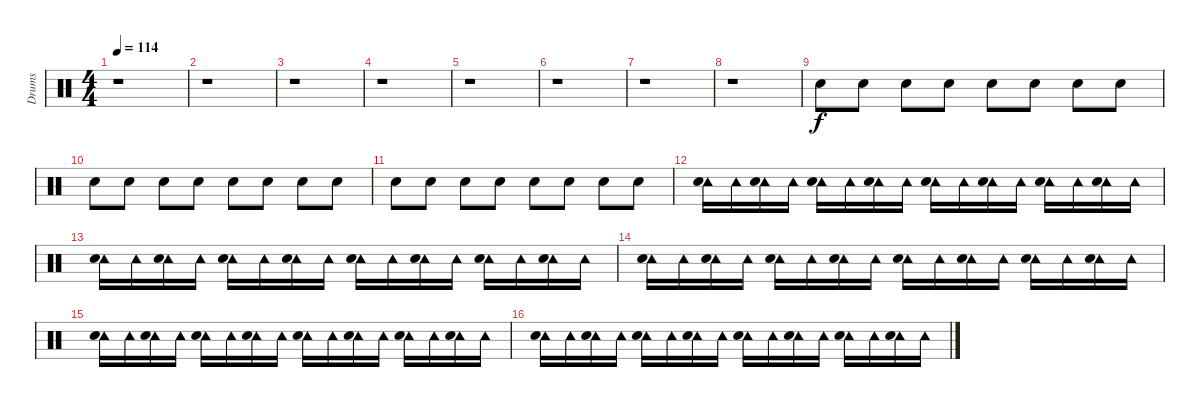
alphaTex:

\track ("Drums" "Drums") {instrument percussion}
\staff {score}
\articulation defaults
\ts (4 4)
\tempo 114
\clef neutral
\ks c
r.1{dy f} |
r.1 |
r.1 |
r.1 |
r.1 |
r.1 |
r.1 |
r.1 |
"Electric Snare (hit)".8{volume 2} "Electric Snare (hit)".8 "Electric Snare (hit)".8 "Electric Snare (hit)".8 "Electric Snare (hit)".8 "Electric Snare (hit)".8 "Electric Snare (hit)".8 "Electric Snare (hit)".8 |
"Electric Snare (hit)".8 "Electric Snare (hit)".8 "Electric Snare (hit)".8 "Electric Snare (hit)".8 "Electric Snare (hit)".8 "Electric Snare (hit)".8 "Electric Snare (hit)".8 "Electric Snare (hit)".8 |
"Electric Snare (hit)".8 "Electric Snare (hit)".8 "Electric Snare (hit)".8 "Electric Snare (hit)".8 "Electric Snare (hit)".8 "Electric Snare (hit)".8 "Electric Snare (hit)".8 "Electric Snare (hit)".8 |
("Tambourine (hit)" "Electric Snare (hit)").16 "Tambourine (hit)".16 ("Tambourine (hit)" "Electric Snare (hit)").16 "Tambourine (hit)".16 ("Tambourine (hit)" "Electric Snare (hit)").16 "Tambourine (hit)".16 ("Tambourine (hit)" "Electric Snare (hit)").16 "Tambourine (hit)".16 ("Tambourine (hit)" "Electric Snare (hit)").16 "Tambourine (hit)".16 ("Tambourine (hit)" "Electric Snare (hit)").16 "Tambourine (hit)".16 ("Tambourine (hit)" "Electric Snare (hit)").16 "Tambourine (hit)".16 ("Tambourine (hit)" "Electric Snare (hit)").16 "Tambourine (hit)".16 |
("Tambourine (hit)" "Electric Snare (hit)").16 "Tambourine (hit)".16 ("Tambourine (hit)" "Electric Snare (hit)").16 "Tambourine (hit)".16 ("Tambourine (hit)" "Electric Snare (hit)").16 "Tambourine (hit)".16 ("Tambourine (hit)" "Electric Snare (hit)").16 "Tambourine (hit)".16 ("Tambourine (hit)" "Electric Snare (hit)").16 "Tambourine (hit)".16 ("Tambourine (hit)" "Electric Snare (hit)").16 "Tambourine (hit)".16 ("Tambourine (hit)" "Electric Snare (hit)").16 "Tambourine (hit)".16 ("Tambourine (hit)" "Electric Snare (hit)").16 "Tambourine (hit)".16 |
("Tambourine (hit)" "Electric Snare (hit)").16 "Tambourine (hit)".16 ("Tambourine (hit)" "Electric Snare (hit)").16 "Tambourine (hit)".16 ("Tambourine (hit)" "Electric Snare (hit)").16 "Tambourine (hit)".16 ("Tambourine (hit)" "Electric Snare (hit)").16 "Tambourine (hit)".16 ("Tambourine (hit)" "Electric Snare (hit)").16 "Tambourine (hit)".16 ("Tambourine (hit)" "Electric Snare (hit)").16 "Tambourine (hit)".16 ("Tambourine (hit)" "Electric Snare (hit)").16 "Tambourine (hit)".16 ("Tambourine (hit)" "Electric Snare (hit)").16 "Tambourine (hit)".16 |
("Tambourine (hit)" "Electric Snare (hit)").16 "Tambourine (hit)".16 ("Tambourine (hit)" "Electric Snare (hit)").16 "Tambourine (hit)".16 ("Tambourine (hit)" "Electric Snare (hit)").16 "Tambourine (hit)".16 ("Tambourine (hit)" "Electric Snare (hit)").16 "Tambourine (hit)".16 ("Tambourine (hit)" "Electric Snare (hit)").16 "Tambourine (hit)".16 ("Tambourine (hit)" "Electric Snare (hit)").16 "Tambourine (hit)".16 ("Tambourine (hit)" "Electric Snare (hit)").16 "Tambourine (hit)".16 ("Tambourine (hit)" "Electric Snare (hit)").16 "Tambourine (hit)".16 |
("Tambourine (hit)" "Electric Snare (hit)").16 "Tambourine (hit)".16 ("Tambourine (hit)" "Electric Snare (hit)").16 "Tambourine (hit)".16 ("Tambourine (hit)" "Electric Snare (hit)").16 "Tambourine (hit)".16 ("Tambourine (hit)" "Electric Snare (hit)").16 "Tambourine (hit)".16 ("Tambourine (hit)" "Electric Snare (hit)").16 "Tambourine (hit)".16 ("Tambourine (hit)" "Electric Snare (hit)").16 "Tambourine (hit)".16 ("Tambourine (hit)" "Electric Snare (hit)").16 "Tambourine (hit)".16 ("Tambourine (hit)" "Electric Snare (hit)").16 "Tambourine (hit)".16
